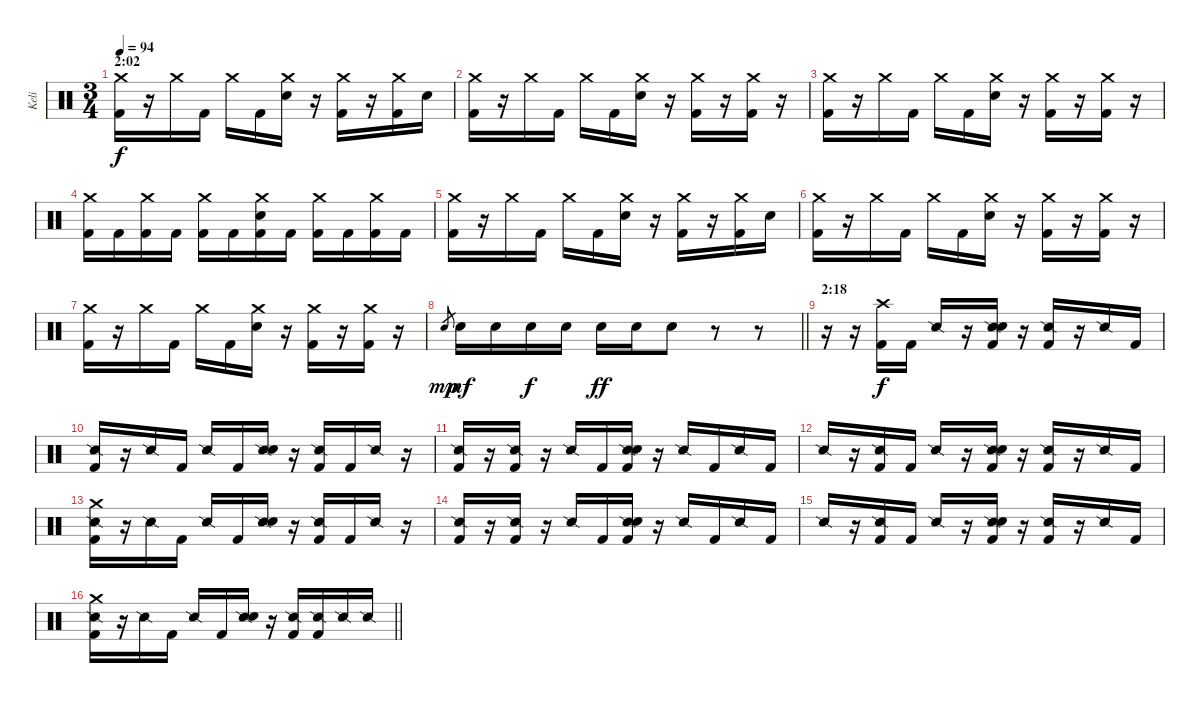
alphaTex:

\track ("Keli" "Keli") {instrument percussion}
\staff {score}
\articulation defaults
\ts (3 4)
\section ("" "2:02")
\tempo 94
\clef neutral
\ks c
("Crash medium (hit)" "Kick (hit) 2").16{dy f} r.16 "Crash medium (hit)".16 "Kick (hit) 2".16 "Crash medium (hit)".16 "Kick (hit) 2".16 ("Crash medium (hit)" "Snare (hit) 2").16 r.16 ("Crash medium (hit)" "Kick (hit) 2").16 r.16 ("Crash medium (hit)" "Kick (hit) 2").16 "Snare (hit) 2".16 |
("Crash medium (hit)" "Kick (hit) 2").16 r.16 "Crash medium (hit)".16 "Kick (hit) 2".16 "Crash medium (hit)".16 "Kick (hit) 2".16 ("Crash medium (hit)" "Snare (hit) 2").16 r.16 ("Crash medium (hit)" "Kick (hit) 2").16 r.16 ("Crash medium (hit)" "Kick (hit) 2").16 r.16 |
("Crash medium (hit)" "Kick (hit) 2").16 r.16 "Crash medium (hit)".16 "Kick (hit) 2".16 "Crash medium (hit)".16 "Kick (hit) 2".16 ("Crash medium (hit)" "Snare (hit) 2").16 r.16 ("Crash medium (hit)" "Kick (hit) 2").16 r.16 ("Crash medium (hit)" "Kick (hit) 2").16 r.16 |
("Crash medium (hit)" "Kick (hit) 2").16 "Kick (hit) 2".16 ("Crash medium (hit)" "Kick (hit) 2").16 "Kick (hit) 2".16 ("Crash medium (hit)" "Kick (hit) 2").16 "Kick (hit) 2".16 ("Crash medium (hit)" "Snare (hit) 2" "Kick (hit) 2").16 "Kick (hit) 2".16 ("Crash medium (hit)" "Kick (hit) 2").16 "Kick (hit) 2".16 ("Crash medium (hit)" "Kick (hit) 2").16 "Kick (hit) 2".16 |
("Crash medium (hit)" "Kick (hit) 2").16 r.16 "Crash medium (hit)".16 "Kick (hit) 2".16 "Crash medium (hit)".16 "Kick (hit) 2".16 ("Crash medium (hit)" "Snare (hit) 2").16 r.16 ("Crash medium (hit)" "Kick (hit) 2").16 r.16 ("Crash medium (hit)" "Kick (hit) 2").16 "Snare (hit) 2".16 |
("Crash medium (hit)" "Kick (hit) 2").16 r.16 "Crash medium (hit)".16 "Kick (hit) 2".16 "Crash medium (hit)".16 "Kick (hit) 2".16 ("Crash medium (hit)" "Snare (hit) 2").16 r.16 ("Crash medium (hit)" "Kick (hit) 2").16 r.16 ("Crash medium (hit)" "Kick (hit) 2").16 r.16 |
("Crash medium (hit)" "Kick (hit) 2").16 r.16 "Crash medium (hit)".16 "Kick (hit) 2".16 "Crash medium (hit)".16 "Kick (hit) 2".16 ("Crash medium (hit)" "Snare (hit) 2").16 r.16 ("Crash medium (hit)" "Kick (hit) 2").16 r.16 ("Crash medium (hit)" "Kick (hit) 2").16 r.16 |
\barLineRight lightlight "Snare (hit) 2".8{gr dy mp} "Snare (hit) 2".16{dy mf} "Snare (hit) 2".16 "Snare (hit) 2".16{dy f} "Snare (hit) 2".16 "Snare (hit) 2".16{dy ff} "Snare (hit) 2".16 "Snare (hit) 2".8
r.8 r.8 |
\section ("" "2:18")
r.16 r.16 ("Crash high (hit)" "Kick (hit) 2").16{dy f} "Kick (hit) 2".16 "Snare (side stick) 2".16 r.16 ("Snare (side stick) 2" "Snare (hit) 2" "Kick (hit) 2").16 r.16 ("Snare (side stick) 2" "Kick (hit) 2").16 r.16 "Snare (side stick) 2".16 "Kick (hit) 2".16 |
("Snare (side stick) 2" "Kick (hit) 2").16 r.16 "Snare (side stick) 2".16 "Kick (hit) 2".16 "Snare (side stick) 2".16 "Kick (hit) 2".16 ("Snare (side stick) 2" "Snare (hit) 2").16 r.16 ("Snare (side stick) 2" "Kick (hit) 2").16 "Kick (hit) 2".16 "Snare (side stick) 2".16 r.16 |
("Snare (side stick) 2" "Kick (hit) 2").16 r.16 ("Snare (side stick) 2" "Kick (hit) 2").16 r.16 "Snare (side stick) 2".16 "Kick (hit) 2".16 ("Snare (side stick) 2" "Snare (hit) 2" "Kick (hit) 2").16 r.16 "Snare (side stick) 2".16 "Kick (hit) 2".16 "Snare (side stick) 2".16 "Kick (hit) 2".16 |
"Snare (side stick) 2".16 r.16 ("Snare (side stick) 2" "Kick (hit) 2").16 "Kick (hit) 2".16 "Snare (side stick) 2".16 r.16 ("Snare (side stick) 2" "Snare (hit) 2" "Kick (hit) 2").16 r.16 ("Snare (side stick) 2" "Kick (hit) 2").16 r.16 "Snare (side stick) 2".16 "Kick (hit) 2".16 |
("Crash medium (hit)" "Snare (side stick) 2" "Kick (hit) 2").16 r.16 "Snare (side stick) 2".16 "Kick (hit) 2".16 "Snare (side stick) 2".16 "Kick (hit) 2".16 ("Snare (side stick) 2" "Snare (hit) 2").16 r.16 ("Snare (side stick) 2" "Kick (hit) 2").16 "Kick (hit) 2".16 "Snare (side stick) 2".16 r.16 |
("Snare (side stick) 2" "Kick (hit) 2").16 r.16 ("Snare (side stick) 2" "Kick (hit) 2").16 r.16 "Snare (side stick) 2".16 "Kick (hit) 2".16 ("Snare (side stick) 2" "Snare (hit) 2" "Kick (hit) 2").16 r.16 "Snare (side stick) 2".16 "Kick (hit) 2".16 "Snare (side stick) 2".16 "Kick (hit) 2".16 |
"Snare (side stick) 2".16 r.16 ("Snare (side stick) 2" "Kick (hit) 2").16 "Kick (hit) 2".16 "Snare (side stick) 2".16 r.16 ("Snare (side stick) 2" "Snare (hit) 2" "Kick (hit) 2").16 r.16 ("Snare (side stick) 2" "Kick (hit) 2").16 r.16 "Snare (side stick) 2".16 "Kick (hit) 2".16 |
\barLineRight lightlight
("Crash medium (hit)" "Snare (side stick) 2" "Kick (hit) 2").16 r.16 "Snare (side stick) 2".16 "Kick (hit) 2".16 "Snare (side stick) 2".16 "Kick (hit) 2".16 ("Snare (side stick) 2" "Snare (hit) 2").16 r.16 ("Snare (side stick) 2" "Kick (hit) 2").16 ("Snare (side stick) 2" "Kick (hit) 2").16 "Snare (side stick) 2".16 "Snare (side stick) 2".16
